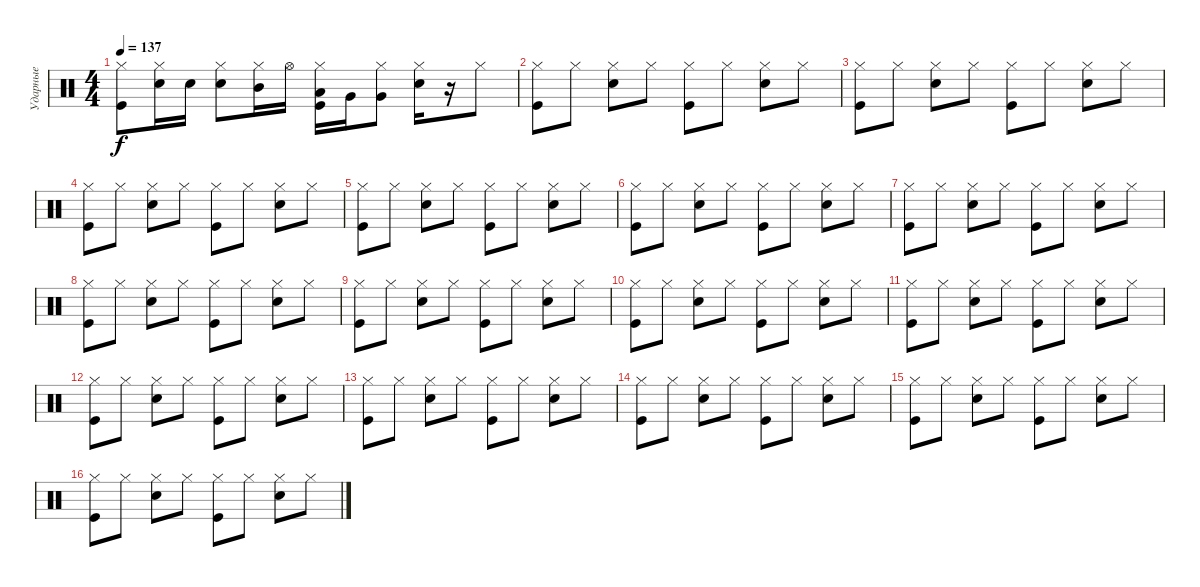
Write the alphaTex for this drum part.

\track ("Ударные" "Ударные") {instrument percussion}
\staff {score}
\articulation defaults
\ts (4 4)
\tempo 137
\clef neutral
\ks c
("Hi-Hat (closed)" "Kick (hit)").8{dy f} ("Hi-Hat (closed)" "Snare (hit) 2").16 "Snare (hit) 2".16 ("Hi-Hat (closed)" "Snare (hit) 2").8 ("Hi-Hat (closed)" "Mid Tom (hit)").16 "Hi-Hat (open)".16 ("Hi-Hat (closed)" "Low Tom (hit)" "Kick (hit)").16 "Very Low Tom (hit)".16 ("Very Low Tom (hit)" "Hi-Hat (closed)").8 ("Hi-Hat (closed)" "Snare (hit) 2").16 r.16 "Hi-Hat (closed)".8 |
("Hi-Hat (closed)" "Kick (hit)").8 "Hi-Hat (closed)".8 ("Hi-Hat (closed)" "Snare (hit) 2").8 "Hi-Hat (closed)".8 ("Hi-Hat (closed)" "Kick (hit)").8 "Hi-Hat (closed)".8 ("Hi-Hat (closed)" "Snare (hit) 2").8 "Hi-Hat (closed)".8 |
("Hi-Hat (closed)" "Kick (hit)").8 "Hi-Hat (closed)".8 ("Hi-Hat (closed)" "Snare (hit) 2").8 "Hi-Hat (closed)".8 ("Hi-Hat (closed)" "Kick (hit)").8 "Hi-Hat (closed)".8 ("Hi-Hat (closed)" "Snare (hit) 2").8 "Hi-Hat (closed)".8 |
("Hi-Hat (closed)" "Kick (hit)").8 "Hi-Hat (closed)".8 ("Hi-Hat (closed)" "Snare (hit) 2").8 "Hi-Hat (closed)".8 ("Hi-Hat (closed)" "Kick (hit)").8 "Hi-Hat (closed)".8 ("Hi-Hat (closed)" "Snare (hit) 2").8 "Hi-Hat (closed)".8 |
("Hi-Hat (closed)" "Kick (hit)").8 "Hi-Hat (closed)".8 ("Hi-Hat (closed)" "Snare (hit) 2").8 "Hi-Hat (closed)".8 ("Hi-Hat (closed)" "Kick (hit)").8 "Hi-Hat (closed)".8 ("Hi-Hat (closed)" "Snare (hit) 2").8 "Hi-Hat (closed)".8 |
("Hi-Hat (closed)" "Kick (hit)").8 "Hi-Hat (closed)".8 ("Hi-Hat (closed)" "Snare (hit) 2").8 "Hi-Hat (closed)".8 ("Hi-Hat (closed)" "Kick (hit)").8 "Hi-Hat (closed)".8 ("Hi-Hat (closed)" "Snare (hit) 2").8 "Hi-Hat (closed)".8 |
("Hi-Hat (closed)" "Kick (hit)").8 "Hi-Hat (closed)".8 ("Hi-Hat (closed)" "Snare (hit) 2").8 "Hi-Hat (closed)".8 ("Hi-Hat (closed)" "Kick (hit)").8 "Hi-Hat (closed)".8 ("Hi-Hat (closed)" "Snare (hit) 2").8 "Hi-Hat (closed)".8 |
("Hi-Hat (closed)" "Kick (hit)").8 "Hi-Hat (closed)".8 ("Hi-Hat (closed)" "Snare (hit) 2").8 "Hi-Hat (closed)".8 ("Hi-Hat (closed)" "Kick (hit)").8 "Hi-Hat (closed)".8 ("Hi-Hat (closed)" "Snare (hit) 2").8 "Hi-Hat (closed)".8 |
("Hi-Hat (closed)" "Kick (hit)").8 "Hi-Hat (closed)".8 ("Hi-Hat (closed)" "Snare (hit) 2").8 "Hi-Hat (closed)".8 ("Hi-Hat (closed)" "Kick (hit)").8 "Hi-Hat (closed)".8 ("Hi-Hat (closed)" "Snare (hit) 2").8 "Hi-Hat (closed)".8 |
("Hi-Hat (closed)" "Kick (hit)").8 "Hi-Hat (closed)".8 ("Hi-Hat (closed)" "Snare (hit) 2").8 "Hi-Hat (closed)".8 ("Hi-Hat (closed)" "Kick (hit)").8 "Hi-Hat (closed)".8 ("Hi-Hat (closed)" "Snare (hit) 2").8 "Hi-Hat (closed)".8 |
("Hi-Hat (closed)" "Kick (hit)").8 "Hi-Hat (closed)".8 ("Hi-Hat (closed)" "Snare (hit) 2").8 "Hi-Hat (closed)".8 ("Hi-Hat (closed)" "Kick (hit)").8 "Hi-Hat (closed)".8 ("Hi-Hat (closed)" "Snare (hit) 2").8 "Hi-Hat (closed)".8 |
("Hi-Hat (closed)" "Kick (hit)").8 "Hi-Hat (closed)".8 ("Hi-Hat (closed)" "Snare (hit) 2").8 "Hi-Hat (closed)".8 ("Hi-Hat (closed)" "Kick (hit)").8 "Hi-Hat (closed)".8 ("Hi-Hat (closed)" "Snare (hit) 2").8 "Hi-Hat (closed)".8 |
("Hi-Hat (closed)" "Kick (hit)").8 "Hi-Hat (closed)".8 ("Hi-Hat (closed)" "Snare (hit) 2").8 "Hi-Hat (closed)".8 ("Hi-Hat (closed)" "Kick (hit)").8 "Hi-Hat (closed)".8 ("Hi-Hat (closed)" "Snare (hit) 2").8 "Hi-Hat (closed)".8 |
("Hi-Hat (closed)" "Kick (hit)").8 "Hi-Hat (closed)".8 ("Hi-Hat (closed)" "Snare (hit) 2").8 "Hi-Hat (closed)".8 ("Hi-Hat (closed)" "Kick (hit)").8 "Hi-Hat (closed)".8 ("Hi-Hat (closed)" "Snare (hit) 2").8 "Hi-Hat (closed)".8 |
("Hi-Hat (closed)" "Kick (hit)").8 "Hi-Hat (closed)".8 ("Hi-Hat (closed)" "Snare (hit) 2").8 "Hi-Hat (closed)".8 ("Hi-Hat (closed)" "Kick (hit)").8 "Hi-Hat (closed)".8 ("Hi-Hat (closed)" "Snare (hit) 2").8 "Hi-Hat (closed)".8 |
("Hi-Hat (closed)" "Kick (hit)").8 "Hi-Hat (closed)".8 ("Hi-Hat (closed)" "Snare (hit) 2").8 "Hi-Hat (closed)".8 ("Hi-Hat (closed)" "Kick (hit)").8 "Hi-Hat (closed)".8 ("Hi-Hat (closed)" "Snare (hit) 2").8 "Hi-Hat (closed)".8
